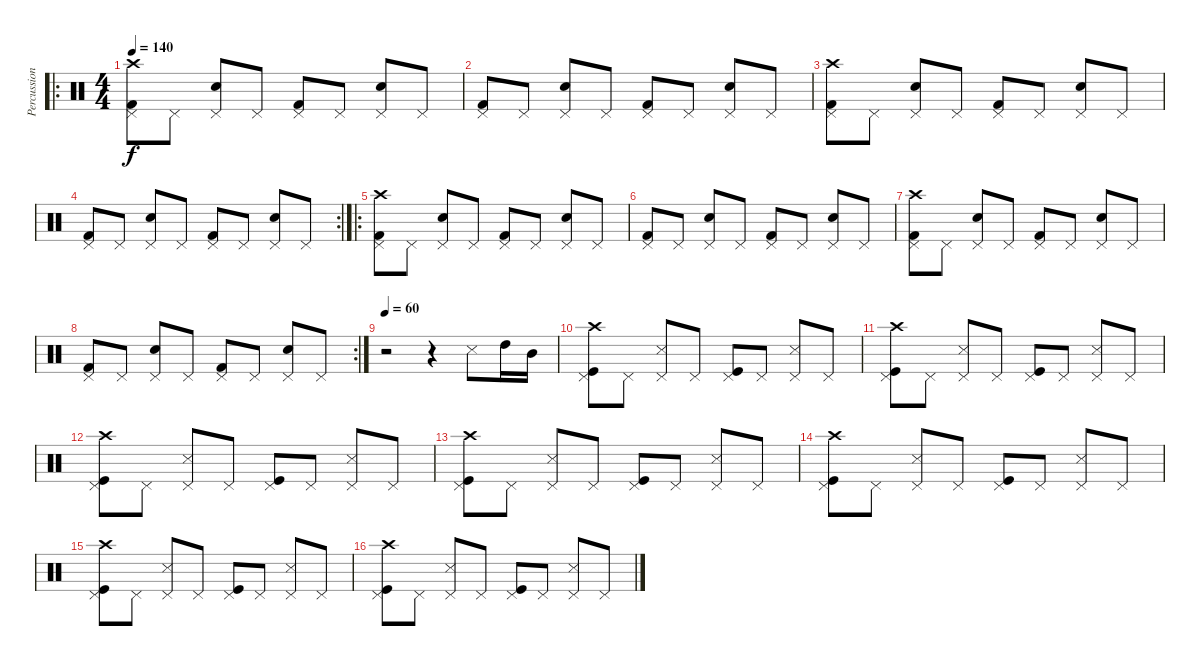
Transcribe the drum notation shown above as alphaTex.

\track ("Percussions" "Percussion") {instrument percussion}
\staff {score}
\articulation defaults
\ro
\ts (4 4)
\tempo 140
\clef neutral
\ks c
("Crash high (hit)" "Pedal Hi-Hat (hit)" "Kick (hit) 2").8{dy f} "Pedal Hi-Hat (hit)".8 ("Pedal Hi-Hat (hit)" "Snare (hit) 2").8 "Pedal Hi-Hat (hit)".8 ("Pedal Hi-Hat (hit)" "Kick (hit) 2").8 "Pedal Hi-Hat (hit)".8 ("Pedal Hi-Hat (hit)" "Snare (hit) 2").8 "Pedal Hi-Hat (hit)".8 |
("Pedal Hi-Hat (hit)" "Kick (hit) 2").8 "Pedal Hi-Hat (hit)".8 ("Pedal Hi-Hat (hit)" "Snare (hit) 2").8 "Pedal Hi-Hat (hit)".8 ("Pedal Hi-Hat (hit)" "Kick (hit) 2").8 "Pedal Hi-Hat (hit)".8 ("Pedal Hi-Hat (hit)" "Snare (hit) 2").8 "Pedal Hi-Hat (hit)".8 |
("Crash high (hit)" "Pedal Hi-Hat (hit)" "Kick (hit) 2").8 "Pedal Hi-Hat (hit)".8 ("Pedal Hi-Hat (hit)" "Snare (hit) 2").8 "Pedal Hi-Hat (hit)".8 ("Pedal Hi-Hat (hit)" "Kick (hit) 2").8 "Pedal Hi-Hat (hit)".8 ("Pedal Hi-Hat (hit)" "Snare (hit) 2").8 "Pedal Hi-Hat (hit)".8 |
\rc 2
("Pedal Hi-Hat (hit)" "Kick (hit) 2").8 "Pedal Hi-Hat (hit)".8 ("Pedal Hi-Hat (hit)" "Snare (hit) 2").8 "Pedal Hi-Hat (hit)".8 ("Pedal Hi-Hat (hit)" "Kick (hit) 2").8 "Pedal Hi-Hat (hit)".8 ("Pedal Hi-Hat (hit)" "Snare (hit) 2").8 "Pedal Hi-Hat (hit)".8 |
\ro
("Crash high (hit)" "Pedal Hi-Hat (hit)" "Kick (hit) 2").8 "Pedal Hi-Hat (hit)".8 ("Pedal Hi-Hat (hit)" "Snare (hit) 2").8 "Pedal Hi-Hat (hit)".8 ("Pedal Hi-Hat (hit)" "Kick (hit) 2").8 "Pedal Hi-Hat (hit)".8 ("Pedal Hi-Hat (hit)" "Snare (hit) 2").8 "Pedal Hi-Hat (hit)".8 |
("Pedal Hi-Hat (hit)" "Kick (hit) 2").8 "Pedal Hi-Hat (hit)".8 ("Pedal Hi-Hat (hit)" "Snare (hit) 2").8 "Pedal Hi-Hat (hit)".8 ("Pedal Hi-Hat (hit)" "Kick (hit) 2").8 "Pedal Hi-Hat (hit)".8 ("Pedal Hi-Hat (hit)" "Snare (hit) 2").8 "Pedal Hi-Hat (hit)".8 |
("Crash high (hit)" "Pedal Hi-Hat (hit)" "Kick (hit) 2").8 "Pedal Hi-Hat (hit)".8 ("Pedal Hi-Hat (hit)" "Snare (hit) 2").8 "Pedal Hi-Hat (hit)".8 ("Pedal Hi-Hat (hit)" "Kick (hit) 2").8 "Pedal Hi-Hat (hit)".8 ("Pedal Hi-Hat (hit)" "Snare (hit) 2").8 "Pedal Hi-Hat (hit)".8 |
\rc 2
("Pedal Hi-Hat (hit)" "Kick (hit) 2").8 "Pedal Hi-Hat (hit)".8 ("Pedal Hi-Hat (hit)" "Snare (hit) 2").8 "Pedal Hi-Hat (hit)".8 ("Pedal Hi-Hat (hit)" "Kick (hit) 2").8 "Pedal Hi-Hat (hit)".8 ("Pedal Hi-Hat (hit)" "Snare (hit) 2").8 "Pedal Hi-Hat (hit)".8 |
\tempo 60
r.2 r.4 "Snare (side stick) 3".8 "High Tom (hit)".16 "Mid Tom (hit)".16 |
("Crash high (hit)" "Pedal Hi-Hat (hit)" "Kick (hit)").8 "Pedal Hi-Hat (hit)".8 ("Pedal Hi-Hat (hit)" "Snare (side stick) 3").8 "Pedal Hi-Hat (hit)".8 ("Pedal Hi-Hat (hit)" "Kick (hit)").8 "Pedal Hi-Hat (hit)".8 ("Pedal Hi-Hat (hit)" "Snare (side stick) 3").8 "Pedal Hi-Hat (hit)".8 |
("Crash high (hit)" "Pedal Hi-Hat (hit)" "Kick (hit)").8 "Pedal Hi-Hat (hit)".8 ("Pedal Hi-Hat (hit)" "Snare (side stick) 3").8 "Pedal Hi-Hat (hit)".8 ("Pedal Hi-Hat (hit)" "Kick (hit)").8 "Pedal Hi-Hat (hit)".8 ("Pedal Hi-Hat (hit)" "Snare (side stick) 3").8 "Pedal Hi-Hat (hit)".8 |
("Crash high (hit)" "Pedal Hi-Hat (hit)" "Kick (hit)").8 "Pedal Hi-Hat (hit)".8 ("Pedal Hi-Hat (hit)" "Snare (side stick) 3").8 "Pedal Hi-Hat (hit)".8 ("Pedal Hi-Hat (hit)" "Kick (hit)").8 "Pedal Hi-Hat (hit)".8 ("Pedal Hi-Hat (hit)" "Snare (side stick) 3").8 "Pedal Hi-Hat (hit)".8 |
("Crash high (hit)" "Pedal Hi-Hat (hit)" "Kick (hit)").8 "Pedal Hi-Hat (hit)".8 ("Pedal Hi-Hat (hit)" "Snare (side stick) 3").8 "Pedal Hi-Hat (hit)".8 ("Pedal Hi-Hat (hit)" "Kick (hit)").8 "Pedal Hi-Hat (hit)".8 ("Pedal Hi-Hat (hit)" "Snare (side stick) 3").8 "Pedal Hi-Hat (hit)".8 |
("Crash high (hit)" "Pedal Hi-Hat (hit)" "Kick (hit)").8 "Pedal Hi-Hat (hit)".8 ("Pedal Hi-Hat (hit)" "Snare (side stick) 3").8 "Pedal Hi-Hat (hit)".8 ("Pedal Hi-Hat (hit)" "Kick (hit)").8 "Pedal Hi-Hat (hit)".8 ("Pedal Hi-Hat (hit)" "Snare (side stick) 3").8 "Pedal Hi-Hat (hit)".8 |
("Crash high (hit)" "Pedal Hi-Hat (hit)" "Kick (hit)").8 "Pedal Hi-Hat (hit)".8 ("Pedal Hi-Hat (hit)" "Snare (side stick) 3").8 "Pedal Hi-Hat (hit)".8 ("Pedal Hi-Hat (hit)" "Kick (hit)").8 "Pedal Hi-Hat (hit)".8 ("Pedal Hi-Hat (hit)" "Snare (side stick) 3").8 "Pedal Hi-Hat (hit)".8 |
("Crash high (hit)" "Pedal Hi-Hat (hit)" "Kick (hit)").8 "Pedal Hi-Hat (hit)".8 ("Pedal Hi-Hat (hit)" "Snare (side stick) 3").8 "Pedal Hi-Hat (hit)".8 ("Pedal Hi-Hat (hit)" "Kick (hit)").8 "Pedal Hi-Hat (hit)".8 ("Pedal Hi-Hat (hit)" "Snare (side stick) 3").8 "Pedal Hi-Hat (hit)".8
